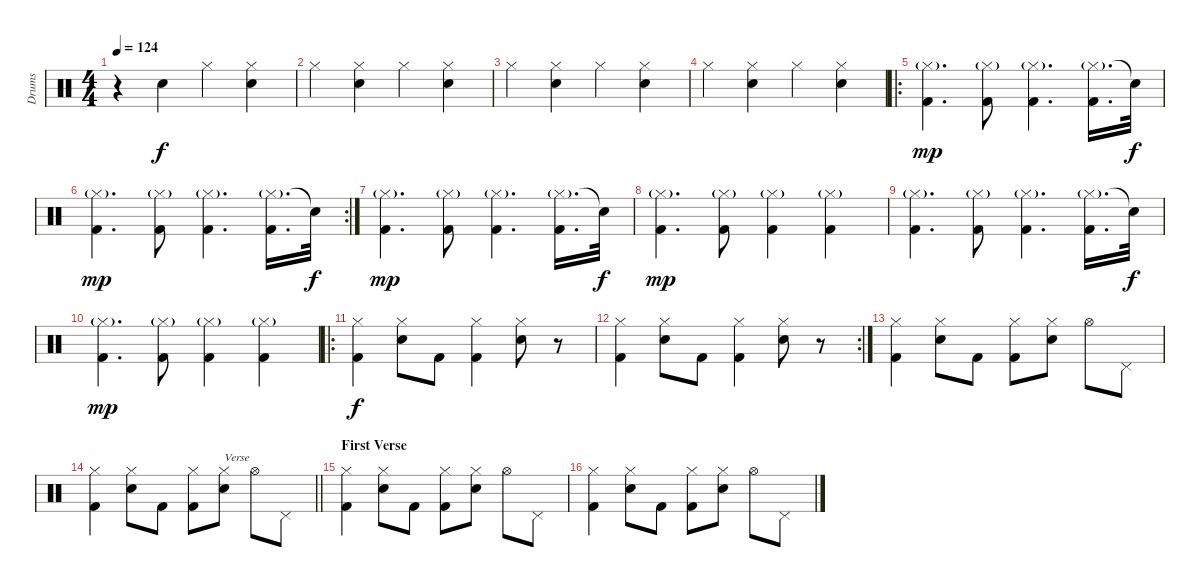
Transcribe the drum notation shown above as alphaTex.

\track ("Drums" "Drums") {instrument percussion}
\staff {score}
\articulation defaults
\ts (4 4)
\tempo 124
\clef neutral
\ks c
r.4{dy f} "Electric Snare (hit)".4 "Hi-Hat (closed)".4 ("Hi-Hat (closed)" "Electric Snare (hit)").4 |
"Hi-Hat (closed)".4 ("Hi-Hat (closed)" "Electric Snare (hit)").4 "Hi-Hat (closed)".4 ("Hi-Hat (closed)" "Electric Snare (hit)").4 |
"Hi-Hat (closed)".4 ("Hi-Hat (closed)" "Electric Snare (hit)").4 "Hi-Hat (closed)".4 ("Hi-Hat (closed)" "Electric Snare (hit)").4 |
"Hi-Hat (closed)".4 ("Hi-Hat (closed)" "Electric Snare (hit)").4 "Hi-Hat (closed)".4 ("Hi-Hat (closed)" "Electric Snare (hit)").4 |
\ro
("Hi-Hat (closed)"{g} "Kick (hit) 2").4{d dy mp} ("Hi-Hat (closed)"{g} "Kick (hit) 2").8 ("Hi-Hat (closed)"{g} "Kick (hit) 2").4{d} ("Hi-Hat (closed)"{g} "Kick (hit) 2").16{d} "Snare (hit)"{t}.32{dy f} |
\rc 2
("Hi-Hat (closed)"{g} "Kick (hit) 2").4{d dy mp} ("Hi-Hat (closed)"{g} "Kick (hit) 2").8 ("Hi-Hat (closed)"{g} "Kick (hit) 2").4{d} ("Hi-Hat (closed)"{g} "Kick (hit) 2").16{d} "Snare (hit)"{t}.32{dy f} |
("Hi-Hat (closed)"{g} "Kick (hit) 2").4{d dy mp} ("Hi-Hat (closed)"{g} "Kick (hit) 2").8 ("Hi-Hat (closed)"{g} "Kick (hit) 2").4{d} ("Hi-Hat (closed)"{g} "Kick (hit) 2").16{d} "Snare (hit)"{t}.32{dy f} |
("Hi-Hat (closed)"{g} "Kick (hit) 2").4{d dy mp} ("Hi-Hat (closed)"{g} "Kick (hit) 2").8 ("Hi-Hat (closed)"{g} "Kick (hit) 2").4 ("Hi-Hat (closed)"{g} "Kick (hit) 2").4 |
("Hi-Hat (closed)"{g} "Kick (hit) 2").4{d} ("Hi-Hat (closed)"{g} "Kick (hit) 2").8 ("Hi-Hat (closed)"{g} "Kick (hit) 2").4{d} ("Hi-Hat (closed)"{g} "Kick (hit) 2").16{d} "Snare (hit)"{t}.32{dy f} |
("Hi-Hat (closed)"{g} "Kick (hit) 2").4{d dy mp} ("Hi-Hat (closed)"{g} "Kick (hit) 2").8 ("Hi-Hat (closed)"{g} "Kick (hit) 2").4 ("Hi-Hat (closed)"{g} "Kick (hit) 2").4 |
\ro
("Hi-Hat (closed)" "Kick (hit) 2").4{dy f} ("Hi-Hat (closed)" "Electric Snare (hit)").8 "Kick (hit) 2".8 ("Hi-Hat (closed)" "Kick (hit) 2").4 ("Hi-Hat (closed)" "Electric Snare (hit)").8 r.8 |
\rc 2
("Hi-Hat (closed)" "Kick (hit) 2").4 ("Hi-Hat (closed)" "Electric Snare (hit)").8 "Kick (hit) 2".8 ("Hi-Hat (closed)" "Kick (hit) 2").4 ("Hi-Hat (closed)" "Electric Snare (hit)").8 r.8 |
("Hi-Hat (closed)" "Kick (hit) 2").4 ("Hi-Hat (closed)" "Electric Snare (hit)").8 "Kick (hit) 2".8 ("Hi-Hat (closed)" "Kick (hit) 2").8 ("Hi-Hat (closed)" "Electric Snare (hit)").8 "Hi-Hat (open)".8 "Pedal Hi-Hat (hit)".8 |
\barLineRight lightlight
("Hi-Hat (closed)" "Kick (hit) 2").4 ("Hi-Hat (closed)" "Electric Snare (hit)").8 "Kick (hit) 2".8 ("Hi-Hat (closed)" "Kick (hit) 2").8 ("Hi-Hat (closed)" "Electric Snare (hit)").8{txt "Verse"} "Hi-Hat (open)".8 "Pedal Hi-Hat (hit)".8 |
\section ("" "First Verse")
("Hi-Hat (closed)" "Kick (hit) 2").4 ("Hi-Hat (closed)" "Electric Snare (hit)").8 "Kick (hit) 2".8 ("Hi-Hat (closed)" "Kick (hit) 2").8 ("Hi-Hat (closed)" "Electric Snare (hit)").8 "Hi-Hat (open)".8 "Pedal Hi-Hat (hit)".8 |
("Hi-Hat (closed)" "Kick (hit) 2").4 ("Hi-Hat (closed)" "Electric Snare (hit)").8 "Kick (hit) 2".8 ("Hi-Hat (closed)" "Kick (hit) 2").8 ("Hi-Hat (closed)" "Electric Snare (hit)").8 "Hi-Hat (open)".8 "Pedal Hi-Hat (hit)".8
